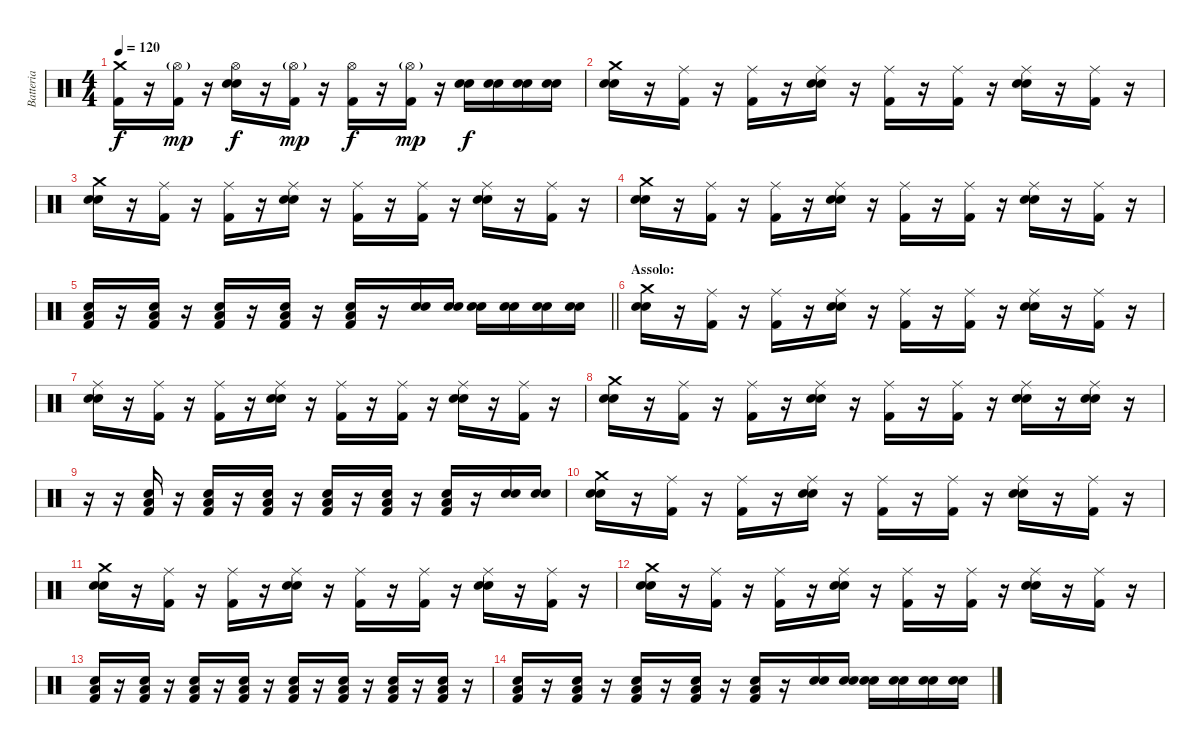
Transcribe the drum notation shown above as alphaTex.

\track ("Batteria" "Batteria") {instrument percussion}
\staff {score}
\articulation defaults
\ts (4 4)
\tempo 120
\clef neutral
\ks c
("Kick (hit) 2" "Crash medium (hit)").16{dy f} r.16 ("Kick (hit) 2" "Hi-Hat (open)"{g}).16{dy mp} r.16 ("Snare (hit) 2" "Snare (hit) 2" "Hi-Hat (open)").16{dy f} r.16 ("Kick (hit) 2" "Hi-Hat (open)"{g}).16{dy mp} r.16 ("Kick (hit) 2" "Hi-Hat (open)").16{dy f} r.16 ("Kick (hit) 2" "Hi-Hat (open)"{g}).16{dy mp} r.16 ("Snare (hit) 2" "Snare (hit) 2").16{dy f} ("Snare (hit) 2" "Snare (hit) 2").16 ("Snare (hit) 2" "Snare (hit) 2").16 ("Snare (hit) 2" "Snare (hit) 2").16 |
("Snare (hit) 2" "Snare (hit) 2" "Crash medium (hit)").16 r.16 ("Kick (hit) 2" "Ride (middle)").16 r.16 ("Kick (hit) 2" "Ride (middle)").16 r.16 ("Snare (hit) 2" "Snare (hit) 2" "Ride (middle)").16 r.16 ("Kick (hit) 2" "Ride (middle)").16 r.16 ("Kick (hit) 2" "Ride (middle)").16 r.16 ("Snare (hit) 2" "Snare (hit) 2" "Ride (middle)").16 r.16 ("Kick (hit) 2" "Ride (middle)").16 r.16 |
("Snare (hit) 2" "Snare (hit) 2" "Crash medium (hit)").16 r.16 ("Kick (hit) 2" "Ride (middle)").16 r.16 ("Kick (hit) 2" "Ride (middle)").16 r.16 ("Snare (hit) 2" "Snare (hit) 2" "Ride (middle)").16 r.16 ("Kick (hit) 2" "Ride (middle)").16 r.16 ("Kick (hit) 2" "Ride (middle)").16 r.16 ("Snare (hit) 2" "Snare (hit) 2" "Ride (middle)").16 r.16 ("Kick (hit) 2" "Ride (middle)").16 r.16 |
("Snare (hit) 2" "Snare (hit) 2" "Crash medium (hit)").16 r.16 ("Kick (hit) 2" "Ride (middle)").16 r.16 ("Kick (hit) 2" "Ride (middle)").16 r.16 ("Snare (hit) 2" "Snare (hit) 2" "Ride (middle)").16 r.16 ("Kick (hit) 2" "Ride (middle)").16 r.16 ("Kick (hit) 2" "Ride (middle)").16 r.16 ("Snare (hit) 2" "Snare (hit) 2" "Ride (middle)").16 r.16 ("Kick (hit) 2" "Ride (middle)").16 r.16 |
\barLineRight lightlight
("Kick (hit) 2" "Snare (hit) 2" "Low Floor Tom (hit)").16 r.16 ("Kick (hit) 2" "Snare (hit) 2" "Low Floor Tom (hit)").16 r.16 ("Kick (hit) 2" "Snare (hit) 2" "Low Floor Tom (hit)").16 r.16 ("Kick (hit) 2" "Snare (hit) 2" "Low Floor Tom (hit)").16 r.16 ("Kick (hit) 2" "Snare (hit) 2" "Low Floor Tom (hit)").16 r.16 ("Snare (hit) 2" "Snare (hit) 2").16 ("Snare (hit) 2" "Snare (hit) 2").16 ("Snare (hit) 2" "Snare (hit) 2").16 ("Snare (hit) 2" "Snare (hit) 2").16 ("Snare (hit) 2" "Snare (hit) 2").16 ("Snare (hit) 2" "Snare (hit) 2").16 |
\section ("" "Assolo:")
("Snare (hit) 2" "Snare (hit) 2" "Crash medium (hit)").16 r.16 ("Kick (hit) 2" "Ride (middle)").16 r.16 ("Kick (hit) 2" "Ride (middle)").16 r.16 ("Snare (hit) 2" "Snare (hit) 2" "Ride (middle)").16 r.16 ("Kick (hit) 2" "Ride (middle)").16 r.16 ("Kick (hit) 2" "Ride (middle)").16 r.16 ("Snare (hit) 2" "Snare (hit) 2" "Ride (middle)").16 r.16 ("Kick (hit) 2" "Ride (middle)").16 r.16 |
("Snare (hit) 2" "Snare (hit) 2" "Ride (middle)").16 r.16 ("Kick (hit) 2" "Ride (middle)").16 r.16 ("Kick (hit) 2" "Ride (middle)").16 r.16 ("Snare (hit) 2" "Snare (hit) 2" "Ride (middle)").16 r.16 ("Kick (hit) 2" "Ride (middle)").16 r.16 ("Kick (hit) 2" "Ride (middle)").16 r.16 ("Snare (hit) 2" "Snare (hit) 2" "Ride (middle)").16 r.16 ("Kick (hit) 2" "Ride (middle)").16 r.16 |
("Snare (hit) 2" "Snare (hit) 2" "Crash medium (hit)").16 r.16 ("Kick (hit) 2" "Ride (middle)").16 r.16 ("Kick (hit) 2" "Ride (middle)").16 r.16 ("Snare (hit) 2" "Snare (hit) 2" "Ride (middle)").16 r.16 ("Kick (hit) 2" "Ride (middle)").16 r.16 ("Kick (hit) 2" "Ride (middle)").16 r.16 ("Snare (hit) 2" "Snare (hit) 2" "Ride (middle)").16 r.16 ("Snare (hit) 2" "Snare (hit) 2" "Ride (middle)").16 r.16 |
r.16 r.16 ("Kick (hit) 2" "Snare (hit) 2" "Low Floor Tom (hit)").16 r.16 ("Kick (hit) 2" "Snare (hit) 2" "Low Floor Tom (hit)").16 r.16 ("Kick (hit) 2" "Snare (hit) 2" "Low Floor Tom (hit)").16 r.16 ("Kick (hit) 2" "Snare (hit) 2" "Low Floor Tom (hit)").16 r.16 ("Kick (hit) 2" "Snare (hit) 2" "Low Floor Tom (hit)").16 r.16 ("Kick (hit) 2" "Snare (hit) 2" "Low Floor Tom (hit)").16 r.16 ("Snare (hit) 2" "Snare (hit) 2").16 ("Snare (hit) 2" "Snare (hit) 2").16 |
("Snare (hit) 2" "Snare (hit) 2" "Crash medium (hit)").16 r.16 ("Kick (hit) 2" "Ride (middle)").16 r.16 ("Kick (hit) 2" "Ride (middle)").16 r.16 ("Snare (hit) 2" "Snare (hit) 2" "Ride (middle)").16 r.16 ("Kick (hit) 2" "Ride (middle)").16 r.16 ("Kick (hit) 2" "Ride (middle)").16 r.16 ("Snare (hit) 2" "Snare (hit) 2" "Ride (middle)").16 r.16 ("Kick (hit) 2" "Ride (middle)").16 r.16 |
("Snare (hit) 2" "Snare (hit) 2" "Crash medium (hit)").16 r.16 ("Kick (hit) 2" "Ride (middle)").16 r.16 ("Kick (hit) 2" "Ride (middle)").16 r.16 ("Snare (hit) 2" "Snare (hit) 2" "Ride (middle)").16 r.16 ("Kick (hit) 2" "Ride (middle)").16 r.16 ("Kick (hit) 2" "Ride (middle)").16 r.16 ("Snare (hit) 2" "Snare (hit) 2" "Ride (middle)").16 r.16 ("Kick (hit) 2" "Ride (middle)").16 r.16 |
("Snare (hit) 2" "Snare (hit) 2" "Crash medium (hit)").16 r.16 ("Kick (hit) 2" "Ride (middle)").16 r.16 ("Kick (hit) 2" "Ride (middle)").16 r.16 ("Snare (hit) 2" "Snare (hit) 2" "Ride (middle)").16 r.16 ("Kick (hit) 2" "Ride (middle)").16 r.16 ("Kick (hit) 2" "Ride (middle)").16 r.16 ("Snare (hit) 2" "Snare (hit) 2" "Ride (middle)").16 r.16 ("Kick (hit) 2" "Ride (middle)").16 r.16 |
("Kick (hit) 2" "Snare (hit) 2" "Low Floor Tom (hit)").16 r.16 ("Kick (hit) 2" "Snare (hit) 2" "Low Floor Tom (hit)").16 r.16 ("Kick (hit) 2" "Snare (hit) 2" "Low Floor Tom (hit)").16 r.16 ("Kick (hit) 2" "Snare (hit) 2" "Low Floor Tom (hit)").16 r.16 ("Kick (hit) 2" "Snare (hit) 2" "Low Floor Tom (hit)").16 r.16 ("Kick (hit) 2" "Snare (hit) 2" "Low Floor Tom (hit)").16 r.16 ("Kick (hit) 2" "Snare (hit) 2" "Low Floor Tom (hit)").16 r.16 ("Kick (hit) 2" "Snare (hit) 2" "Low Floor Tom (hit)").16 r.16 |
("Kick (hit) 2" "Snare (hit) 2" "Low Floor Tom (hit)").16 r.16 ("Kick (hit) 2" "Snare (hit) 2" "Low Floor Tom (hit)").16 r.16 ("Kick (hit) 2" "Snare (hit) 2" "Low Floor Tom (hit)").16 r.16 ("Kick (hit) 2" "Snare (hit) 2" "Low Floor Tom (hit)").16 r.16 ("Kick (hit) 2" "Snare (hit) 2" "Low Floor Tom (hit)").16 r.16 ("Snare (hit) 2" "Snare (hit) 2").16 ("Snare (hit) 2" "Snare (hit) 2").16 ("Snare (hit) 2" "Snare (hit) 2").16 ("Snare (hit) 2" "Snare (hit) 2").16 ("Snare (hit) 2" "Snare (hit) 2").16 ("Snare (hit) 2" "Snare (hit) 2").16
